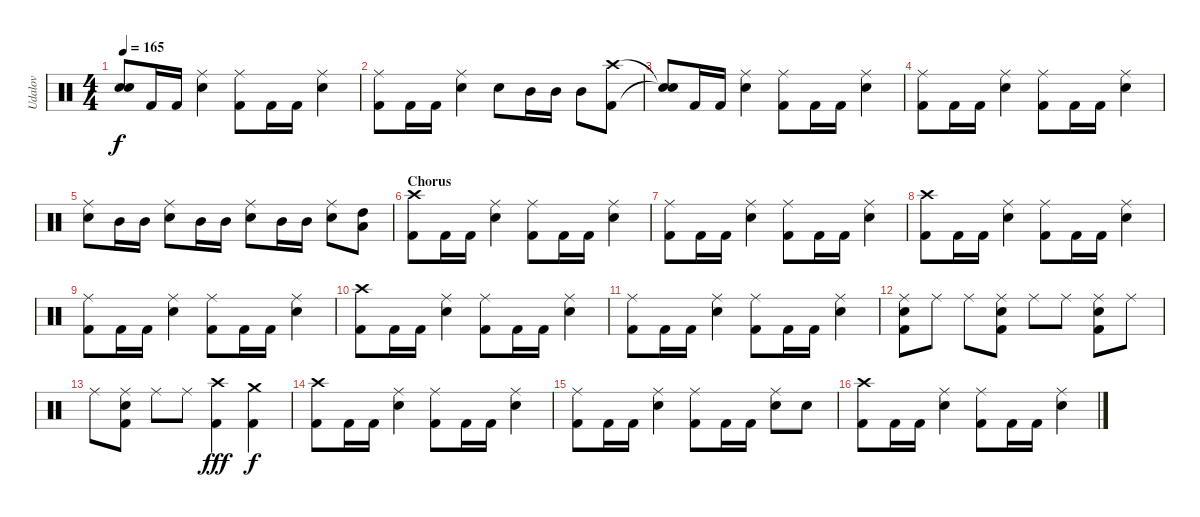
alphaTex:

\track ("Udalov" "Udalov") {instrument percussion}
\staff {score}
\articulation defaults
\ts (4 4)
\tempo 165
\clef neutral
\ks c
("Snare (hit)"{t} "Snare (hit)"{t}).8{dy f} "Kick (hit) 2".16 "Kick (hit) 2".16 ("Snare (hit) 2" "Ride (middle)").4 ("Kick (hit) 2" "Ride (middle)").8 "Kick (hit) 2".16 "Kick (hit) 2".16 ("Snare (hit) 2" "Ride (middle)").4 |
("Kick (hit) 2" "Ride (middle)").8 "Kick (hit) 2".16 "Kick (hit) 2".16 ("Snare (hit) 2" "Ride (middle)").4 "Snare (hit) 2".8 "Mid Tom (hit)".16 "Mid Tom (hit)".16 "Mid Tom (hit)".8 ("Kick (hit) 2" "Crash high (hit)").8 |
("Snare (hit)"{t} "Snare (hit)"{t}).8 "Kick (hit) 2".16 "Kick (hit) 2".16 ("Snare (hit) 2" "Ride (middle)").4 ("Kick (hit) 2" "Ride (middle)").8 "Kick (hit) 2".16 "Kick (hit) 2".16 ("Snare (hit) 2" "Ride (middle)").4 |
("Kick (hit) 2" "Ride (middle)").8 "Kick (hit) 2".16 "Kick (hit) 2".16 ("Snare (hit) 2" "Ride (middle)").4 ("Kick (hit) 2" "Ride (middle)").8 "Kick (hit) 2".16 "Kick (hit) 2".16 ("Snare (hit) 2" "Ride (middle)").4 |
("Snare (hit) 2" "Ride (middle)").8 "Mid Tom (hit)".16 "Mid Tom (hit)".16 ("Snare (hit) 2" "Ride (middle)").8 "Mid Tom (hit)".16 "Mid Tom (hit)".16 ("Snare (hit) 2" "Ride (middle)").8 "Mid Tom (hit)".16 "Mid Tom (hit)".16 ("Snare (hit) 2" "Ride (middle)").8 ("High Tom (hit)" "Low Tom (hit)").8 |
\section ("" "Chorus")
("Kick (hit) 2" "Crash high (hit)").8 "Kick (hit) 2".16 "Kick (hit) 2".16 ("Snare (hit) 2" "Ride (middle)").4 ("Kick (hit) 2" "Ride (middle)").8 "Kick (hit) 2".16 "Kick (hit) 2".16 ("Snare (hit) 2" "Ride (middle)").4 |
("Kick (hit) 2" "Ride (middle)").8 "Kick (hit) 2".16 "Kick (hit) 2".16 ("Snare (hit) 2" "Ride (middle)").4 ("Kick (hit) 2" "Ride (middle)").8 "Kick (hit) 2".16 "Kick (hit) 2".16 ("Snare (hit) 2" "Ride (middle)").4 |
("Kick (hit) 2" "Crash high (hit)").8 "Kick (hit) 2".16 "Kick (hit) 2".16 ("Snare (hit) 2" "Ride (middle)").4 ("Kick (hit) 2" "Ride (middle)").8 "Kick (hit) 2".16 "Kick (hit) 2".16 ("Snare (hit) 2" "Ride (middle)").4 |
("Kick (hit) 2" "Ride (middle)").8 "Kick (hit) 2".16 "Kick (hit) 2".16 ("Snare (hit) 2" "Ride (middle)").4 ("Kick (hit) 2" "Ride (middle)").8 "Kick (hit) 2".16 "Kick (hit) 2".16 ("Snare (hit) 2" "Ride (middle)").4 |
("Kick (hit) 2" "Crash high (hit)").8 "Kick (hit) 2".16 "Kick (hit) 2".16 ("Snare (hit) 2" "Ride (middle)").4 ("Kick (hit) 2" "Ride (middle)").8 "Kick (hit) 2".16 "Kick (hit) 2".16 ("Snare (hit) 2" "Ride (middle)").4 |
("Kick (hit) 2" "Ride (middle)").8 "Kick (hit) 2".16 "Kick (hit) 2".16 ("Snare (hit) 2" "Ride (middle)").4 ("Kick (hit) 2" "Ride (middle)").8 "Kick (hit) 2".16 "Kick (hit) 2".16 ("Snare (hit) 2" "Ride (middle)").4 |
("Snare (hit) 2" "Ride (middle)" "Kick (hit) 2").8 "Ride (middle)".8 "Ride (middle)".8 ("Snare (hit) 2" "Ride (middle)" "Kick (hit) 2").8 "Ride (middle)".8 "Ride (middle)".8 ("Snare (hit) 2" "Ride (middle)" "Kick (hit) 2").8 "Ride (middle)".8 |
"Ride (middle)".8 ("Snare (hit) 2" "Ride (middle)" "Kick (hit) 2").8 "Ride (middle)".8 "Ride (middle)".8 ("Kick (hit) 2" "Crash high (hit)").4{dy fff} ("Kick (hit) 2" "Crash medium (hit)").4{dy f} |
("Kick (hit) 2" "Crash high (hit)").8 "Kick (hit) 2".16 "Kick (hit) 2".16 ("Snare (hit) 2" "Ride (middle)").4 ("Kick (hit) 2" "Ride (middle)").8 "Kick (hit) 2".16 "Kick (hit) 2".16 ("Snare (hit) 2" "Ride (middle)").4 |
("Kick (hit) 2" "Ride (middle)").8 "Kick (hit) 2".16 "Kick (hit) 2".16 ("Snare (hit) 2" "Ride (middle)").4 ("Kick (hit) 2" "Ride (middle)").8 "Kick (hit) 2".16 "Kick (hit) 2".16 ("Snare (hit) 2" "Ride (middle)").8 "Snare (hit) 2".8 |
("Kick (hit) 2" "Crash high (hit)").8 "Kick (hit) 2".16 "Kick (hit) 2".16 ("Snare (hit) 2" "Ride (middle)").4 ("Kick (hit) 2" "Ride (middle)").8 "Kick (hit) 2".16 "Kick (hit) 2".16 ("Snare (hit) 2" "Ride (middle)").4
